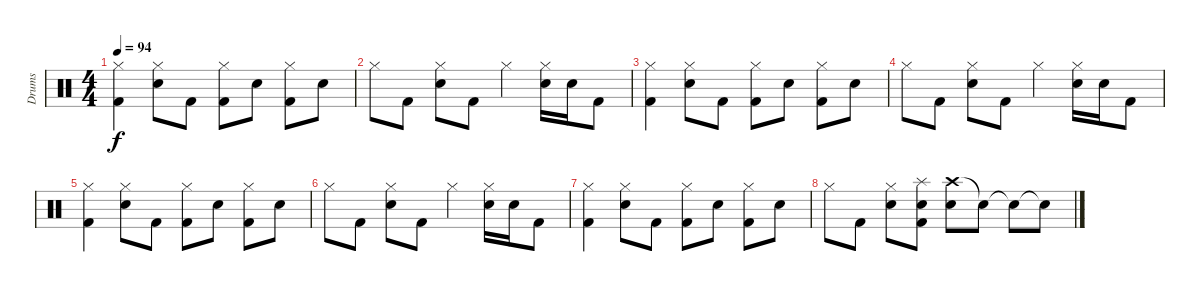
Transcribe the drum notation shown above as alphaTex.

\track ("Drums" "Drums") {instrument percussion}
\staff {score}
\articulation defaults
\ts (4 4)
\tempo 94
\clef neutral
\ks c
("Hi-Hat (closed)" "Kick (hit) 2").4{dy f} ("Hi-Hat (closed)" "Snare (hit) 2").8 "Kick (hit) 2".8 ("Hi-Hat (closed)" "Kick (hit) 2").8 "Snare (hit) 2".8 ("Hi-Hat (closed)" "Kick (hit) 2").8 "Snare (hit) 2".8 |
"Hi-Hat (closed)".8 "Kick (hit) 2".8 ("Hi-Hat (closed)" "Snare (hit) 2").8 "Kick (hit) 2".8 "Hi-Hat (closed)".4 ("Hi-Hat (closed)" "Snare (hit) 2").16 "Snare (hit) 2".16 "Kick (hit) 2".8 |
("Hi-Hat (closed)" "Kick (hit) 2").4 ("Hi-Hat (closed)" "Snare (hit) 2").8 "Kick (hit) 2".8 ("Hi-Hat (closed)" "Kick (hit) 2").8 "Snare (hit) 2".8 ("Hi-Hat (closed)" "Kick (hit) 2").8 "Snare (hit) 2".8 |
"Hi-Hat (closed)".8 "Kick (hit) 2".8 ("Hi-Hat (closed)" "Snare (hit) 2").8 "Kick (hit) 2".8 "Hi-Hat (closed)".4 ("Hi-Hat (closed)" "Snare (hit) 2").16 "Snare (hit) 2".16 "Kick (hit) 2".8 |
("Hi-Hat (closed)" "Kick (hit) 2").4 ("Hi-Hat (closed)" "Snare (hit) 2").8 "Kick (hit) 2".8 ("Hi-Hat (closed)" "Kick (hit) 2").8 "Snare (hit) 2".8 ("Hi-Hat (closed)" "Kick (hit) 2").8 "Snare (hit) 2".8 |
"Hi-Hat (closed)".8 "Kick (hit) 2".8 ("Hi-Hat (closed)" "Snare (hit) 2").8 "Kick (hit) 2".8 "Hi-Hat (closed)".4 ("Hi-Hat (closed)" "Snare (hit) 2").16 "Snare (hit) 2".16 "Kick (hit) 2".8 |
("Hi-Hat (closed)" "Kick (hit) 2").4 ("Hi-Hat (closed)" "Snare (hit) 2").8 "Kick (hit) 2".8 ("Hi-Hat (closed)" "Kick (hit) 2").8 "Snare (hit) 2".8 ("Hi-Hat (closed)" "Kick (hit) 2").8 "Snare (hit) 2".8 |
"Hi-Hat (closed)".8 "Kick (hit) 2".8 ("Hi-Hat (closed)" "Snare (hit) 2").8 ("Splash (hit)" "Snare (hit) 2" "Kick (hit) 2").8 ("Crash high (hit)" "Snare (hit) 2").8 "Snare (hit)"{t}.8 "Snare (hit)"{t}.8 "Snare (hit)"{t}.8
